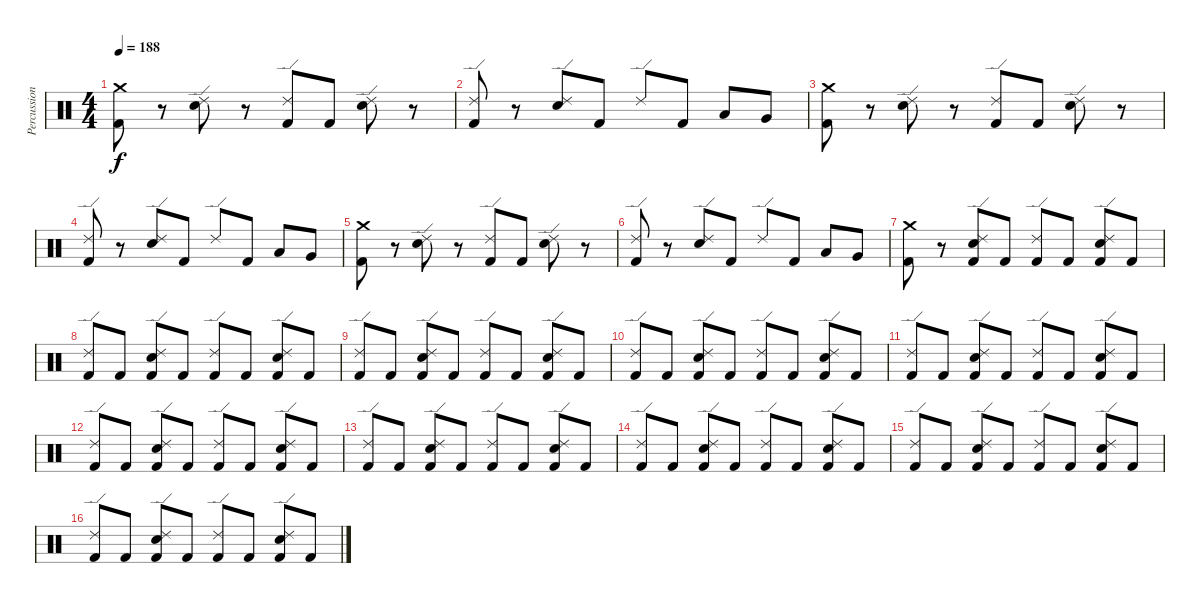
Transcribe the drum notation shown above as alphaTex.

\track ("Percussion" "Percussion") {instrument percussion}
\staff {score}
\articulation defaults
\ts (4 4)
\tempo 188
\clef neutral
\ks c
("Crash medium (hit)" "Kick (hit) 2").8{dy f} r.8 ("Ride (edge) 2" "Snare (hit) 2").8 r.8 ("Ride (edge) 2" "Kick (hit) 2").8 "Kick (hit) 2".8 ("Ride (edge) 2" "Snare (hit) 2").8 r.8 |
("Ride (edge) 2" "Kick (hit) 2").8 r.8 ("Ride (edge) 2" "Snare (hit) 2").8 "Kick (hit) 2".8 "Ride (edge) 2".8 "Kick (hit) 2".8 "Low Tom (hit)".8 "Very Low Tom (hit)".8 |
("Crash medium (hit)" "Kick (hit) 2").8 r.8 ("Ride (edge) 2" "Snare (hit) 2").8 r.8 ("Ride (edge) 2" "Kick (hit) 2").8 "Kick (hit) 2".8 ("Ride (edge) 2" "Snare (hit) 2").8 r.8 |
("Ride (edge) 2" "Kick (hit) 2").8 r.8 ("Ride (edge) 2" "Snare (hit) 2").8 "Kick (hit) 2".8 "Ride (edge) 2".8 "Kick (hit) 2".8 "Low Tom (hit)".8 "Very Low Tom (hit)".8 |
("Crash medium (hit)" "Kick (hit) 2").8 r.8 ("Ride (edge) 2" "Snare (hit) 2").8 r.8 ("Ride (edge) 2" "Kick (hit) 2").8 "Kick (hit) 2".8 ("Ride (edge) 2" "Snare (hit) 2").8 r.8 |
("Ride (edge) 2" "Kick (hit) 2").8 r.8 ("Ride (edge) 2" "Snare (hit) 2").8 "Kick (hit) 2".8 "Ride (edge) 2".8 "Kick (hit) 2".8 "Low Tom (hit)".8 "Very Low Tom (hit)".8 |
("Crash medium (hit)" "Kick (hit) 2").8 r.8 ("Ride (edge) 2" "Snare (hit) 2" "Kick (hit) 2").8 "Kick (hit) 2".8 ("Ride (edge) 2" "Kick (hit) 2").8 "Kick (hit) 2".8 ("Ride (edge) 2" "Snare (hit) 2" "Kick (hit) 2").8 "Kick (hit) 2".8 |
("Ride (edge) 2" "Kick (hit) 2").8 "Kick (hit) 2".8 ("Ride (edge) 2" "Snare (hit) 2" "Kick (hit) 2").8 "Kick (hit) 2".8 ("Ride (edge) 2" "Kick (hit) 2").8 "Kick (hit) 2".8 ("Ride (edge) 2" "Snare (hit) 2" "Kick (hit) 2").8 "Kick (hit) 2".8 |
("Ride (edge) 2" "Kick (hit) 2").8 "Kick (hit) 2".8 ("Ride (edge) 2" "Snare (hit) 2" "Kick (hit) 2").8 "Kick (hit) 2".8 ("Ride (edge) 2" "Kick (hit) 2").8 "Kick (hit) 2".8 ("Ride (edge) 2" "Snare (hit) 2" "Kick (hit) 2").8 "Kick (hit) 2".8 |
("Ride (edge) 2" "Kick (hit) 2").8 "Kick (hit) 2".8 ("Ride (edge) 2" "Snare (hit) 2" "Kick (hit) 2").8 "Kick (hit) 2".8 ("Ride (edge) 2" "Kick (hit) 2").8 "Kick (hit) 2".8 ("Ride (edge) 2" "Snare (hit) 2" "Kick (hit) 2").8 "Kick (hit) 2".8 |
("Ride (edge) 2" "Kick (hit) 2").8 "Kick (hit) 2".8 ("Ride (edge) 2" "Snare (hit) 2" "Kick (hit) 2").8 "Kick (hit) 2".8 ("Ride (edge) 2" "Kick (hit) 2").8 "Kick (hit) 2".8 ("Ride (edge) 2" "Snare (hit) 2" "Kick (hit) 2").8 "Kick (hit) 2".8 |
("Ride (edge) 2" "Kick (hit) 2").8 "Kick (hit) 2".8 ("Ride (edge) 2" "Snare (hit) 2" "Kick (hit) 2").8 "Kick (hit) 2".8 ("Ride (edge) 2" "Kick (hit) 2").8 "Kick (hit) 2".8 ("Ride (edge) 2" "Snare (hit) 2" "Kick (hit) 2").8 "Kick (hit) 2".8 |
("Ride (edge) 2" "Kick (hit) 2").8 "Kick (hit) 2".8 ("Ride (edge) 2" "Snare (hit) 2" "Kick (hit) 2").8 "Kick (hit) 2".8 ("Ride (edge) 2" "Kick (hit) 2").8 "Kick (hit) 2".8 ("Ride (edge) 2" "Snare (hit) 2" "Kick (hit) 2").8 "Kick (hit) 2".8 |
("Ride (edge) 2" "Kick (hit) 2").8 "Kick (hit) 2".8 ("Ride (edge) 2" "Snare (hit) 2" "Kick (hit) 2").8 "Kick (hit) 2".8 ("Ride (edge) 2" "Kick (hit) 2").8 "Kick (hit) 2".8 ("Ride (edge) 2" "Snare (hit) 2" "Kick (hit) 2").8 "Kick (hit) 2".8 |
("Ride (edge) 2" "Kick (hit) 2").8 "Kick (hit) 2".8 ("Ride (edge) 2" "Snare (hit) 2" "Kick (hit) 2").8 "Kick (hit) 2".8 ("Ride (edge) 2" "Kick (hit) 2").8 "Kick (hit) 2".8 ("Ride (edge) 2" "Snare (hit) 2" "Kick (hit) 2").8 "Kick (hit) 2".8 |
("Ride (edge) 2" "Kick (hit) 2").8 "Kick (hit) 2".8 ("Ride (edge) 2" "Snare (hit) 2" "Kick (hit) 2").8 "Kick (hit) 2".8 ("Ride (edge) 2" "Kick (hit) 2").8 "Kick (hit) 2".8 ("Ride (edge) 2" "Snare (hit) 2" "Kick (hit) 2").8 "Kick (hit) 2".8
